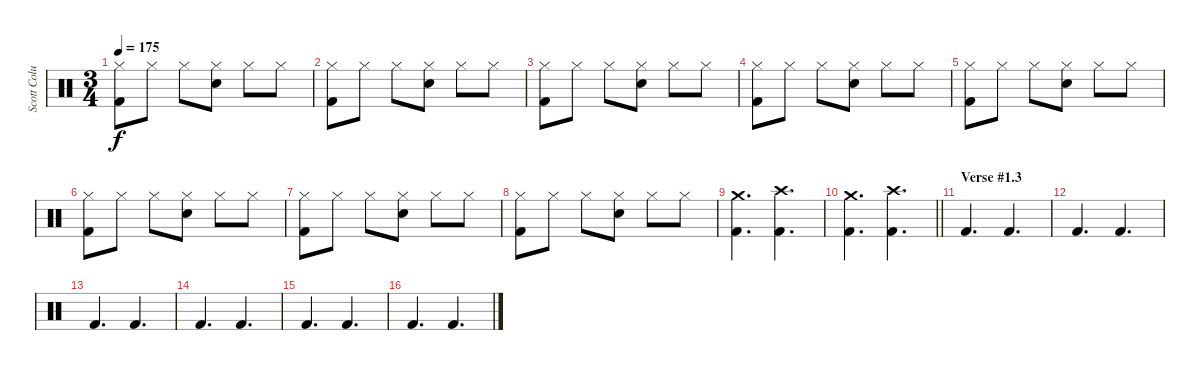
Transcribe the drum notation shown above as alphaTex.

\track ("Scott Columbus" "Scott Colu") {instrument percussion}
\staff {score}
\articulation defaults
\ts (3 4)
\tempo 175
\clef neutral
\ks c
("Kick (hit) 2" "Hi-Hat (closed)").8{dy f} "Hi-Hat (closed)".8 "Hi-Hat (closed)".8 ("Snare (hit) 2" "Hi-Hat (closed)").8 "Hi-Hat (closed)".8 "Hi-Hat (closed)".8 |
("Kick (hit) 2" "Hi-Hat (closed)").8 "Hi-Hat (closed)".8 "Hi-Hat (closed)".8 ("Snare (hit) 2" "Hi-Hat (closed)").8 "Hi-Hat (closed)".8 "Hi-Hat (closed)".8 |
("Kick (hit) 2" "Hi-Hat (closed)").8 "Hi-Hat (closed)".8 "Hi-Hat (closed)".8 ("Snare (hit) 2" "Hi-Hat (closed)").8 "Hi-Hat (closed)".8 "Hi-Hat (closed)".8 |
("Kick (hit) 2" "Hi-Hat (closed)").8 "Hi-Hat (closed)".8 "Hi-Hat (closed)".8 ("Snare (hit) 2" "Hi-Hat (closed)").8 "Hi-Hat (closed)".8 "Hi-Hat (closed)".8 |
("Kick (hit) 2" "Hi-Hat (closed)").8 "Hi-Hat (closed)".8 "Hi-Hat (closed)".8 ("Snare (hit) 2" "Hi-Hat (closed)").8 "Hi-Hat (closed)".8 "Hi-Hat (closed)".8 |
("Kick (hit) 2" "Hi-Hat (closed)").8 "Hi-Hat (closed)".8 "Hi-Hat (closed)".8 ("Snare (hit) 2" "Hi-Hat (closed)").8 "Hi-Hat (closed)".8 "Hi-Hat (closed)".8 |
("Kick (hit) 2" "Hi-Hat (closed)").8 "Hi-Hat (closed)".8 "Hi-Hat (closed)".8 ("Snare (hit) 2" "Hi-Hat (closed)").8 "Hi-Hat (closed)".8 "Hi-Hat (closed)".8 |
("Kick (hit) 2" "Hi-Hat (closed)").8 "Hi-Hat (closed)".8 "Hi-Hat (closed)".8 ("Snare (hit) 2" "Hi-Hat (closed)").8 "Hi-Hat (closed)".8 "Hi-Hat (closed)".8 |
("Kick (hit) 2" "Crash medium (hit)").4{d} ("Kick (hit) 2" "Crash high (hit)").4{d} |
\barLineRight lightlight
("Kick (hit) 2" "Crash medium (hit)").4{d} ("Kick (hit) 2" "Crash high (hit)").4{d} |
\section ("" "Verse #1.3")
"Kick (hit) 2".4{d} "Kick (hit) 2".4{d} |
"Kick (hit) 2".4{d} "Kick (hit) 2".4{d} |
"Kick (hit) 2".4{d} "Kick (hit) 2".4{d} |
"Kick (hit) 2".4{d} "Kick (hit) 2".4{d} |
"Kick (hit) 2".4{d} "Kick (hit) 2".4{d} |
"Kick (hit) 2".4{d} "Kick (hit) 2".4{d}
